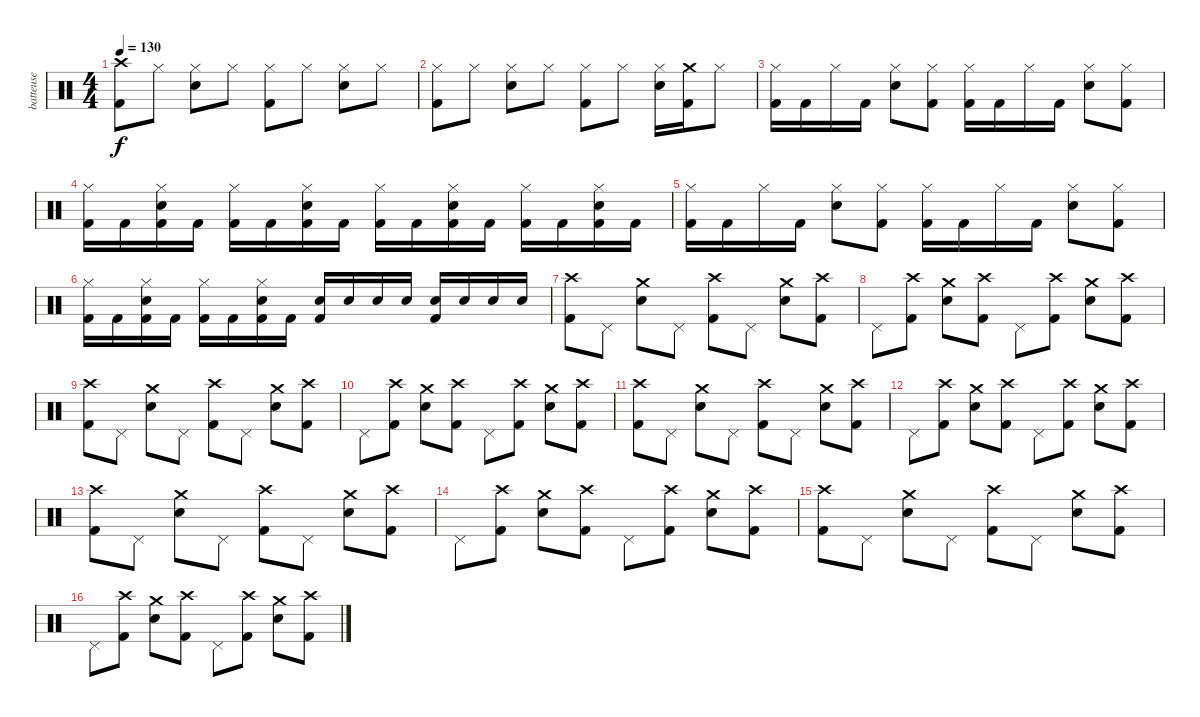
\track ("batteuse" "batteuse") {instrument percussion}
\staff {score}
\articulation defaults
\ts (4 4)
\tempo 130
\clef neutral
\ks c
("Crash high (hit)" "Kick (hit) 2").8{dy f} "Hi-Hat (closed)".8 ("Snare (hit) 2" "Hi-Hat (closed)").8 "Hi-Hat (closed)".8 ("Kick (hit) 2" "Hi-Hat (closed)").8 "Hi-Hat (closed)".8 ("Snare (hit) 2" "Hi-Hat (closed)").8 "Hi-Hat (closed)".8 |
("Kick (hit) 2" "Hi-Hat (closed)").8 "Hi-Hat (closed)".8 ("Snare (hit) 2" "Hi-Hat (closed)").8 "Hi-Hat (closed)".8 ("Kick (hit) 2" "Hi-Hat (closed)").8 "Hi-Hat (closed)".8 ("Snare (hit) 2" "Hi-Hat (closed)").16 ("Crash medium (hit)" "Kick (hit) 2").16 "Hi-Hat (closed)".8 |
("Kick (hit) 2" "Hi-Hat (closed)").16 "Kick (hit) 2".16 "Hi-Hat (closed)".16 "Kick (hit) 2".16 ("Snare (hit) 2" "Hi-Hat (closed)").8 ("Kick (hit) 2" "Hi-Hat (closed)").8 ("Kick (hit) 2" "Hi-Hat (closed)").16 "Kick (hit) 2".16 "Hi-Hat (closed)".16 "Kick (hit) 2".16 ("Snare (hit) 2" "Hi-Hat (closed)").8 ("Kick (hit) 2" "Hi-Hat (closed)").8 |
("Kick (hit) 2" "Hi-Hat (closed)").16 "Kick (hit) 2".16 ("Snare (hit) 2" "Kick (hit) 2" "Hi-Hat (closed)").16 "Kick (hit) 2".16 ("Kick (hit) 2" "Hi-Hat (closed)").16 "Kick (hit) 2".16 ("Snare (hit) 2" "Kick (hit) 2" "Hi-Hat (closed)").16 "Kick (hit) 2".16 ("Kick (hit) 2" "Hi-Hat (closed)").16 "Kick (hit) 2".16 ("Snare (hit) 2" "Kick (hit) 2" "Hi-Hat (closed)").16 "Kick (hit) 2".16 ("Kick (hit) 2" "Hi-Hat (closed)").16 "Kick (hit) 2".16 ("Snare (hit) 2" "Kick (hit) 2" "Hi-Hat (closed)").16 "Kick (hit) 2".16 |
("Kick (hit) 2" "Hi-Hat (closed)").16 "Kick (hit) 2".16 "Hi-Hat (closed)".16 "Kick (hit) 2".16 ("Snare (hit) 2" "Hi-Hat (closed)").8 ("Kick (hit) 2" "Hi-Hat (closed)").8 ("Kick (hit) 2" "Hi-Hat (closed)").16 "Kick (hit) 2".16 "Hi-Hat (closed)".16 "Kick (hit) 2".16 ("Snare (hit) 2" "Hi-Hat (closed)").8 ("Kick (hit) 2" "Hi-Hat (closed)").8 |
("Kick (hit) 2" "Hi-Hat (closed)").16 "Kick (hit) 2".16 ("Snare (hit) 2" "Kick (hit) 2" "Hi-Hat (closed)").16 "Kick (hit) 2".16 ("Kick (hit) 2" "Hi-Hat (closed)").16 "Kick (hit) 2".16 ("Snare (hit) 2" "Kick (hit) 2" "Hi-Hat (closed)").16 "Kick (hit) 2".16 ("Snare (hit) 2" "Kick (hit) 2").16 "Snare (hit) 2".16 "Snare (hit) 2".16 "Snare (hit) 2".16 ("Snare (hit) 2" "Kick (hit) 2").16 "Snare (hit) 2".16 "Snare (hit) 2".16 "Snare (hit) 2".16 |
("Crash high (hit)" "Kick (hit) 2").8 "Pedal Hi-Hat (hit)".8 ("Crash medium (hit)" "Snare (hit) 2").8 "Pedal Hi-Hat (hit)".8 ("Crash high (hit)" "Kick (hit) 2").8 "Pedal Hi-Hat (hit)".8 ("Crash medium (hit)" "Snare (hit) 2").8 ("Crash high (hit)" "Kick (hit) 2").8 |
"Pedal Hi-Hat (hit)".8 ("Crash high (hit)" "Kick (hit) 2").8 ("Crash medium (hit)" "Snare (hit) 2").8 ("Crash high (hit)" "Kick (hit) 2").8 "Pedal Hi-Hat (hit)".8 ("Crash high (hit)" "Kick (hit) 2").8 ("Crash medium (hit)" "Snare (hit) 2").8 ("Crash high (hit)" "Kick (hit) 2").8 |
("Crash high (hit)" "Kick (hit) 2").8 "Pedal Hi-Hat (hit)".8 ("Crash medium (hit)" "Snare (hit) 2").8 "Pedal Hi-Hat (hit)".8 ("Crash high (hit)" "Kick (hit) 2").8 "Pedal Hi-Hat (hit)".8 ("Crash medium (hit)" "Snare (hit) 2").8 ("Crash high (hit)" "Kick (hit) 2").8 |
"Pedal Hi-Hat (hit)".8 ("Crash high (hit)" "Kick (hit) 2").8 ("Crash medium (hit)" "Snare (hit) 2").8 ("Crash high (hit)" "Kick (hit) 2").8 "Pedal Hi-Hat (hit)".8 ("Crash high (hit)" "Kick (hit) 2").8 ("Crash medium (hit)" "Snare (hit) 2").8 ("Crash high (hit)" "Kick (hit) 2").8 |
("Crash high (hit)" "Kick (hit) 2").8 "Pedal Hi-Hat (hit)".8 ("Crash medium (hit)" "Snare (hit) 2").8 "Pedal Hi-Hat (hit)".8 ("Crash high (hit)" "Kick (hit) 2").8 "Pedal Hi-Hat (hit)".8 ("Crash medium (hit)" "Snare (hit) 2").8 ("Crash high (hit)" "Kick (hit) 2").8 |
"Pedal Hi-Hat (hit)".8 ("Crash high (hit)" "Kick (hit) 2").8 ("Crash medium (hit)" "Snare (hit) 2").8 ("Crash high (hit)" "Kick (hit) 2").8 "Pedal Hi-Hat (hit)".8 ("Crash high (hit)" "Kick (hit) 2").8 ("Crash medium (hit)" "Snare (hit) 2").8 ("Crash high (hit)" "Kick (hit) 2").8 |
("Crash high (hit)" "Kick (hit) 2").8 "Pedal Hi-Hat (hit)".8 ("Crash medium (hit)" "Snare (hit) 2").8 "Pedal Hi-Hat (hit)".8 ("Crash high (hit)" "Kick (hit) 2").8 "Pedal Hi-Hat (hit)".8 ("Crash medium (hit)" "Snare (hit) 2").8 ("Crash high (hit)" "Kick (hit) 2").8 |
"Pedal Hi-Hat (hit)".8 ("Crash high (hit)" "Kick (hit) 2").8 ("Crash medium (hit)" "Snare (hit) 2").8 ("Crash high (hit)" "Kick (hit) 2").8 "Pedal Hi-Hat (hit)".8 ("Crash high (hit)" "Kick (hit) 2").8 ("Crash medium (hit)" "Snare (hit) 2").8 ("Crash high (hit)" "Kick (hit) 2").8 |
("Crash high (hit)" "Kick (hit) 2").8 "Pedal Hi-Hat (hit)".8 ("Crash medium (hit)" "Snare (hit) 2").8 "Pedal Hi-Hat (hit)".8 ("Crash high (hit)" "Kick (hit) 2").8 "Pedal Hi-Hat (hit)".8 ("Crash medium (hit)" "Snare (hit) 2").8 ("Crash high (hit)" "Kick (hit) 2").8 |
"Pedal Hi-Hat (hit)".8 ("Crash high (hit)" "Kick (hit) 2").8 ("Crash medium (hit)" "Snare (hit) 2").8 ("Crash high (hit)" "Kick (hit) 2").8 "Pedal Hi-Hat (hit)".8 ("Crash high (hit)" "Kick (hit) 2").8 ("Crash medium (hit)" "Snare (hit) 2").8 ("Crash high (hit)" "Kick (hit) 2").8
